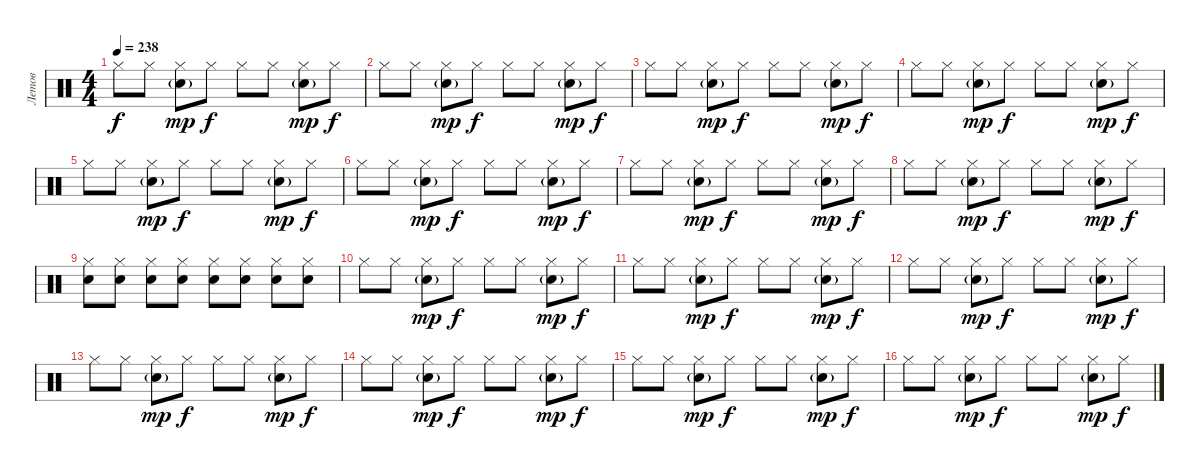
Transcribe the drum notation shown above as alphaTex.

\track ("Летов" "Летов") {instrument percussion}
\staff {score}
\articulation defaults
\ts (4 4)
\tempo 238
\clef neutral
\ks c "Hi-Hat (closed)".8{dy f} "Hi-Hat (closed)".8
("Hi-Hat (closed)" "Snare (hit) 2"{g}).8{dy mp} "Hi-Hat (closed)".8{dy f} "Hi-Hat (closed)".8 "Hi-Hat (closed)".8 ("Hi-Hat (closed)" "Snare (hit) 2"{g}).8{dy mp} "Hi-Hat (closed)".8{dy f} |
"Hi-Hat (closed)".8 "Hi-Hat (closed)".8 ("Hi-Hat (closed)" "Snare (hit) 2"{g}).8{dy mp} "Hi-Hat (closed)".8{dy f} "Hi-Hat (closed)".8 "Hi-Hat (closed)".8 ("Hi-Hat (closed)" "Snare (hit) 2"{g}).8{dy mp} "Hi-Hat (closed)".8{dy f} |
"Hi-Hat (closed)".8 "Hi-Hat (closed)".8 ("Hi-Hat (closed)" "Snare (hit) 2"{g}).8{dy mp} "Hi-Hat (closed)".8{dy f} "Hi-Hat (closed)".8 "Hi-Hat (closed)".8 ("Hi-Hat (closed)" "Snare (hit) 2"{g}).8{dy mp} "Hi-Hat (closed)".8{dy f} |
"Hi-Hat (closed)".8 "Hi-Hat (closed)".8 ("Hi-Hat (closed)" "Snare (hit) 2"{g}).8{dy mp} "Hi-Hat (closed)".8{dy f} "Hi-Hat (closed)".8 "Hi-Hat (closed)".8 ("Hi-Hat (closed)" "Snare (hit) 2"{g}).8{dy mp} "Hi-Hat (closed)".8{dy f} |
"Hi-Hat (closed)".8 "Hi-Hat (closed)".8 ("Hi-Hat (closed)" "Snare (hit) 2"{g}).8{dy mp} "Hi-Hat (closed)".8{dy f} "Hi-Hat (closed)".8 "Hi-Hat (closed)".8 ("Hi-Hat (closed)" "Snare (hit) 2"{g}).8{dy mp} "Hi-Hat (closed)".8{dy f} |
"Hi-Hat (closed)".8 "Hi-Hat (closed)".8 ("Hi-Hat (closed)" "Snare (hit) 2"{g}).8{dy mp} "Hi-Hat (closed)".8{dy f} "Hi-Hat (closed)".8 "Hi-Hat (closed)".8 ("Hi-Hat (closed)" "Snare (hit) 2"{g}).8{dy mp} "Hi-Hat (closed)".8{dy f} |
"Hi-Hat (closed)".8 "Hi-Hat (closed)".8 ("Hi-Hat (closed)" "Snare (hit) 2"{g}).8{dy mp} "Hi-Hat (closed)".8{dy f} "Hi-Hat (closed)".8 "Hi-Hat (closed)".8 ("Hi-Hat (closed)" "Snare (hit) 2"{g}).8{dy mp} "Hi-Hat (closed)".8{dy f} |
"Hi-Hat (closed)".8 "Hi-Hat (closed)".8 ("Hi-Hat (closed)" "Snare (hit) 2"{g}).8{dy mp} "Hi-Hat (closed)".8{dy f} "Hi-Hat (closed)".8 "Hi-Hat (closed)".8 ("Hi-Hat (closed)" "Snare (hit) 2"{g}).8{dy mp} "Hi-Hat (closed)".8{dy f} |
("Hi-Hat (closed)" "Snare (hit) 2").8 ("Hi-Hat (closed)" "Snare (hit) 2").8 ("Hi-Hat (closed)" "Snare (hit) 2").8 ("Hi-Hat (closed)" "Snare (hit) 2").8 ("Hi-Hat (closed)" "Snare (hit) 2").8 ("Hi-Hat (closed)" "Snare (hit) 2").8 ("Hi-Hat (closed)" "Snare (hit) 2").8 ("Hi-Hat (closed)" "Snare (hit) 2").8 |
"Hi-Hat (closed)".8 "Hi-Hat (closed)".8 ("Hi-Hat (closed)" "Snare (hit) 2"{g}).8{dy mp} "Hi-Hat (closed)".8{dy f} "Hi-Hat (closed)".8 "Hi-Hat (closed)".8 ("Hi-Hat (closed)" "Snare (hit) 2"{g}).8{dy mp} "Hi-Hat (closed)".8{dy f} |
"Hi-Hat (closed)".8 "Hi-Hat (closed)".8 ("Hi-Hat (closed)" "Snare (hit) 2"{g}).8{dy mp} "Hi-Hat (closed)".8{dy f} "Hi-Hat (closed)".8 "Hi-Hat (closed)".8 ("Hi-Hat (closed)" "Snare (hit) 2"{g}).8{dy mp} "Hi-Hat (closed)".8{dy f} |
"Hi-Hat (closed)".8 "Hi-Hat (closed)".8 ("Hi-Hat (closed)" "Snare (hit) 2"{g}).8{dy mp} "Hi-Hat (closed)".8{dy f} "Hi-Hat (closed)".8 "Hi-Hat (closed)".8 ("Hi-Hat (closed)" "Snare (hit) 2"{g}).8{dy mp} "Hi-Hat (closed)".8{dy f} |
"Hi-Hat (closed)".8 "Hi-Hat (closed)".8 ("Hi-Hat (closed)" "Snare (hit) 2"{g}).8{dy mp} "Hi-Hat (closed)".8{dy f} "Hi-Hat (closed)".8 "Hi-Hat (closed)".8 ("Hi-Hat (closed)" "Snare (hit) 2"{g}).8{dy mp} "Hi-Hat (closed)".8{dy f} |
"Hi-Hat (closed)".8 "Hi-Hat (closed)".8 ("Hi-Hat (closed)" "Snare (hit) 2"{g}).8{dy mp} "Hi-Hat (closed)".8{dy f} "Hi-Hat (closed)".8 "Hi-Hat (closed)".8 ("Hi-Hat (closed)" "Snare (hit) 2"{g}).8{dy mp} "Hi-Hat (closed)".8{dy f} |
"Hi-Hat (closed)".8 "Hi-Hat (closed)".8 ("Hi-Hat (closed)" "Snare (hit) 2"{g}).8{dy mp} "Hi-Hat (closed)".8{dy f} "Hi-Hat (closed)".8 "Hi-Hat (closed)".8 ("Hi-Hat (closed)" "Snare (hit) 2"{g}).8{dy mp} "Hi-Hat (closed)".8{dy f} |
"Hi-Hat (closed)".8 "Hi-Hat (closed)".8 ("Hi-Hat (closed)" "Snare (hit) 2"{g}).8{dy mp} "Hi-Hat (closed)".8{dy f} "Hi-Hat (closed)".8 "Hi-Hat (closed)".8 ("Hi-Hat (closed)" "Snare (hit) 2"{g}).8{dy mp} "Hi-Hat (closed)".8{dy f}
